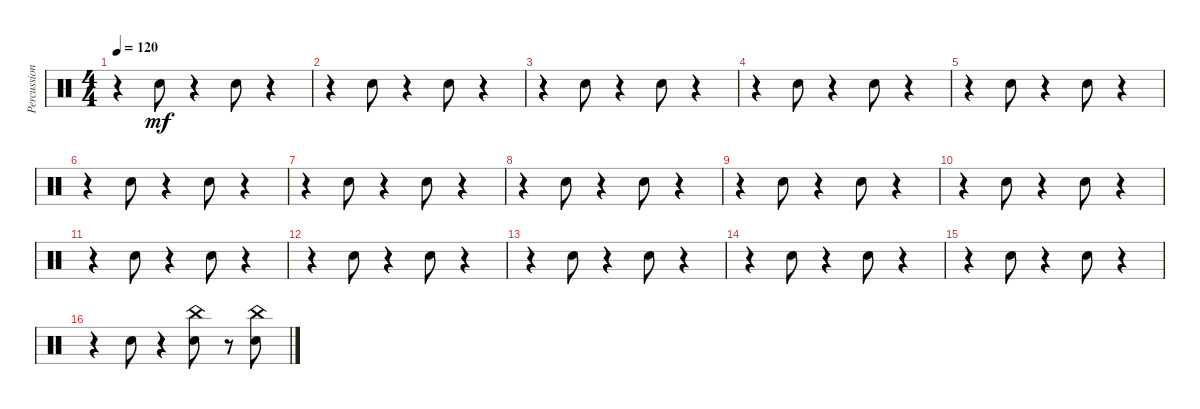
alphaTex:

\track ("Percussions" "Percussion") {instrument percussion}
\staff {score}
\articulation defaults
\ts (4 4)
\tempo 120
\clef neutral
\ks c
r.4{dy mf} "Electric Snare (hit)".8 r.4 "Electric Snare (hit)".8 r.4 |
r.4 "Electric Snare (hit)".8 r.4 "Electric Snare (hit)".8 r.4 |
r.4 "Electric Snare (hit)".8 r.4 "Electric Snare (hit)".8 r.4 |
r.4 "Electric Snare (hit)".8 r.4 "Electric Snare (hit)".8 r.4 |
r.4 "Electric Snare (hit)".8 r.4 "Electric Snare (hit)".8 r.4 |
r.4 "Electric Snare (hit)".8 r.4 "Electric Snare (hit)".8 r.4 |
r.4 "Electric Snare (hit)".8 r.4 "Electric Snare (hit)".8 r.4 |
r.4 "Electric Snare (hit)".8 r.4 "Electric Snare (hit)".8 r.4 |
r.4 "Electric Snare (hit)".8 r.4 "Electric Snare (hit)".8 r.4 |
r.4 "Electric Snare (hit)".8 r.4 "Electric Snare (hit)".8 r.4 |
r.4 "Electric Snare (hit)".8 r.4 "Electric Snare (hit)".8 r.4 |
r.4 "Electric Snare (hit)".8 r.4 "Electric Snare (hit)".8 r.4 |
r.4 "Electric Snare (hit)".8 r.4 "Electric Snare (hit)".8 r.4 |
r.4 "Electric Snare (hit)".8 r.4 "Electric Snare (hit)".8 r.4 |
r.4 "Electric Snare (hit)".8 r.4 "Electric Snare (hit)".8 r.4 |
r.4 "Electric Snare (hit)".8 r.4 ("China (hit)" "Electric Snare (hit)").8 r.8 ("China (hit)" "Electric Snare (hit)").8
